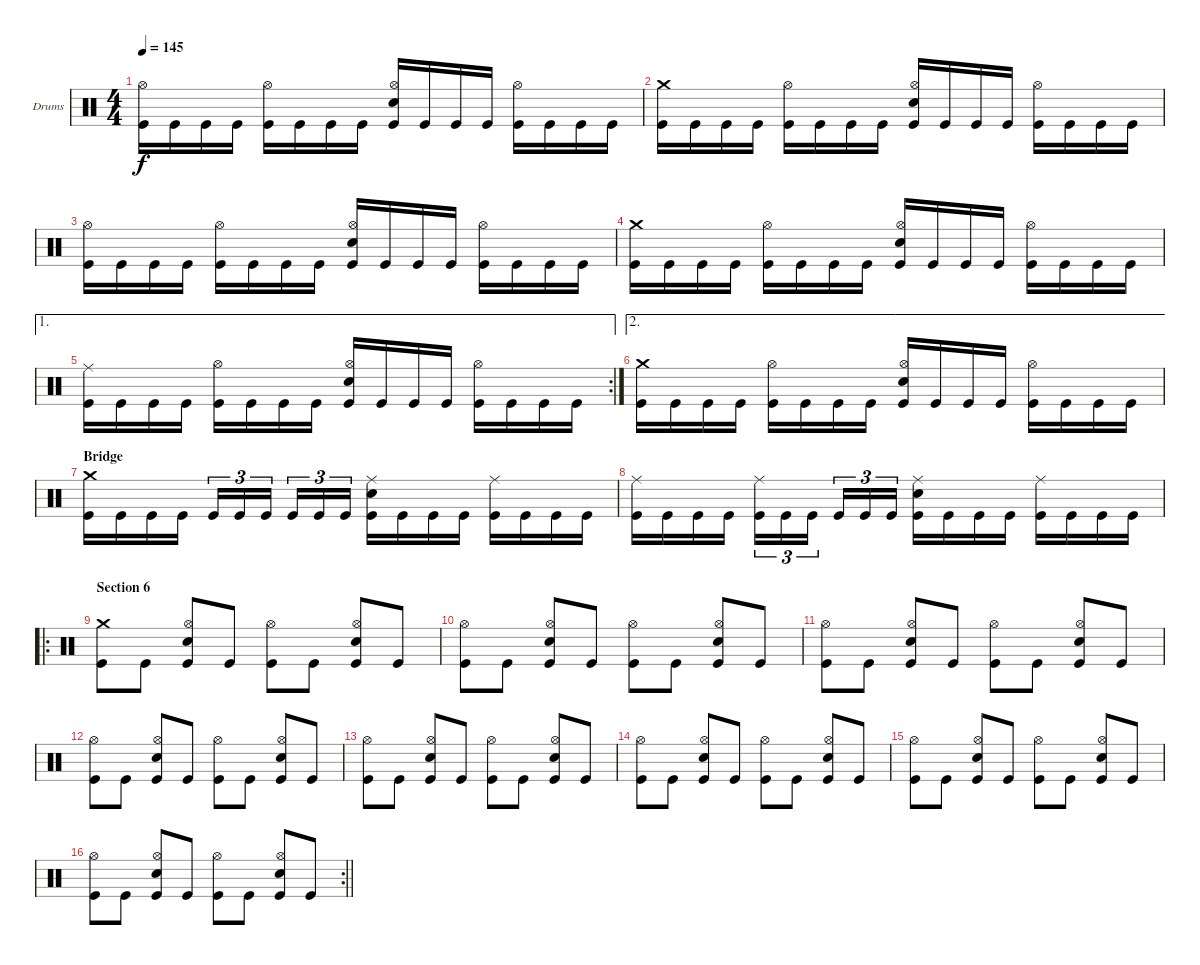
\defaultSystemsLayout 4
\bracketExtendMode groupsimilarinstruments
\firstSystemTrackNameOrientation horizontal
\otherSystemsTrackNameOrientation horizontal
\track ("Drums" "Drums") {instrument percussion}
\staff {score}
\articulation defaults
\ts (4 4)
\tempo 145
\clef neutral
\ks c
("Kick (hit)" "Hi-Hat (open)").16{dy f} "Kick (hit)".16 "Kick (hit)".16 "Kick (hit)".16 ("Kick (hit)" "Hi-Hat (open)").16 "Kick (hit)".16 "Kick (hit)".16 "Kick (hit)".16 ("Snare (hit) 2" "Hi-Hat (open)" "Kick (hit)").16 "Kick (hit)".16 "Kick (hit)".16 "Kick (hit)".16 ("Kick (hit)" "Hi-Hat (open)").16 "Kick (hit)".16 "Kick (hit)".16 "Kick (hit)".16 |
("Kick (hit)" "Crash medium (hit)").16 "Kick (hit)".16 "Kick (hit)".16 "Kick (hit)".16 ("Kick (hit)" "Hi-Hat (open)").16 "Kick (hit)".16 "Kick (hit)".16 "Kick (hit)".16 ("Snare (hit) 2" "Hi-Hat (open)" "Kick (hit)").16 "Kick (hit)".16 "Kick (hit)".16 "Kick (hit)".16 ("Kick (hit)" "Hi-Hat (open)").16 "Kick (hit)".16 "Kick (hit)".16 "Kick (hit)".16 |
("Kick (hit)" "Hi-Hat (open)").16 "Kick (hit)".16 "Kick (hit)".16 "Kick (hit)".16 ("Kick (hit)" "Hi-Hat (open)").16 "Kick (hit)".16 "Kick (hit)".16 "Kick (hit)".16 ("Snare (hit) 2" "Hi-Hat (open)" "Kick (hit)").16 "Kick (hit)".16 "Kick (hit)".16 "Kick (hit)".16 ("Kick (hit)" "Hi-Hat (open)").16 "Kick (hit)".16 "Kick (hit)".16 "Kick (hit)".16 |
("Kick (hit)" "Crash medium (hit)").16 "Kick (hit)".16 "Kick (hit)".16 "Kick (hit)".16 ("Kick (hit)" "Hi-Hat (open)").16 "Kick (hit)".16 "Kick (hit)".16 "Kick (hit)".16 ("Snare (hit) 2" "Hi-Hat (open)" "Kick (hit)").16 "Kick (hit)".16 "Kick (hit)".16 "Kick (hit)".16 ("Kick (hit)" "Hi-Hat (open)").16 "Kick (hit)".16 "Kick (hit)".16 "Kick (hit)".16 |
\ae 1
\rc 2
("Kick (hit)" "Ride (middle)").16 "Kick (hit)".16 "Kick (hit)".16 "Kick (hit)".16 ("Kick (hit)" "Hi-Hat (open)").16 "Kick (hit)".16 "Kick (hit)".16 "Kick (hit)".16 ("Snare (hit) 2" "Hi-Hat (open)" "Kick (hit)").16 "Kick (hit)".16 "Kick (hit)".16 "Kick (hit)".16 ("Kick (hit)" "Hi-Hat (open)").16 "Kick (hit)".16 "Kick (hit)".16 "Kick (hit)".16 |
\ae 2
("Kick (hit)" "Crash medium (hit)").16 "Kick (hit)".16 "Kick (hit)".16 "Kick (hit)".16 ("Kick (hit)" "Hi-Hat (open)").16 "Kick (hit)".16 "Kick (hit)".16 "Kick (hit)".16 ("Snare (hit) 2" "Hi-Hat (open)" "Kick (hit)").16 "Kick (hit)".16 "Kick (hit)".16 "Kick (hit)".16 ("Kick (hit)" "Hi-Hat (open)").16 "Kick (hit)".16 "Kick (hit)".16 "Kick (hit)".16 |
\section ("" "Bridge")
("Kick (hit)" "Crash medium (hit)").16 "Kick (hit)".16 "Kick (hit)".16 "Kick (hit)".16 "Kick (hit)".16{tu (3 2)} "Kick (hit)".16{tu (3 2)} "Kick (hit)".16{tu (3 2)} "Kick (hit)".16{tu (3 2)} "Kick (hit)".16{tu (3 2)} "Kick (hit)".16{tu (3 2)} ("Snare (hit) 2" "Ride (middle)" "Kick (hit)").16 "Kick (hit)".16 "Kick (hit)".16 "Kick (hit)".16 ("Kick (hit)" "Ride (middle)").16 "Kick (hit)".16 "Kick (hit)".16 "Kick (hit)".16 |
("Kick (hit)" "Ride (middle)").16 "Kick (hit)".16 "Kick (hit)".16 "Kick (hit)".16 ("Kick (hit)" "Ride (middle)").16{tu (3 2)} "Kick (hit)".16{tu (3 2)} "Kick (hit)".16{tu (3 2)} "Kick (hit)".16{tu (3 2)} "Kick (hit)".16{tu (3 2)} "Kick (hit)".16{tu (3 2)} ("Snare (hit) 2" "Ride (middle)" "Kick (hit)").16 "Kick (hit)".16 "Kick (hit)".16 "Kick (hit)".16 ("Kick (hit)" "Ride (middle)").16 "Kick (hit)".16 "Kick (hit)".16 "Kick (hit)".16 |
\ro
\section ("" "Section 6")
("Kick (hit)" "Crash medium (hit)").8 "Kick (hit)".8 ("Snare (hit) 2" "Hi-Hat (open)" "Kick (hit)").8 "Kick (hit)".8 ("Kick (hit)" "Hi-Hat (open)").8 "Kick (hit)".8 ("Snare (hit) 2" "Hi-Hat (open)" "Kick (hit)").8 "Kick (hit)".8 |
("Kick (hit)" "Hi-Hat (open)").8 "Kick (hit)".8 ("Snare (hit) 2" "Hi-Hat (open)" "Kick (hit)").8 "Kick (hit)".8 ("Kick (hit)" "Hi-Hat (open)").8 "Kick (hit)".8 ("Snare (hit) 2" "Hi-Hat (open)" "Kick (hit)").8 "Kick (hit)".8 |
("Kick (hit)" "Hi-Hat (open)").8 "Kick (hit)".8 ("Snare (hit) 2" "Hi-Hat (open)" "Kick (hit)").8 "Kick (hit)".8 ("Kick (hit)" "Hi-Hat (open)").8 "Kick (hit)".8 ("Snare (hit) 2" "Hi-Hat (open)" "Kick (hit)").8 "Kick (hit)".8 |
("Kick (hit)" "Hi-Hat (open)").8 "Kick (hit)".8 ("Snare (hit) 2" "Hi-Hat (open)" "Kick (hit)").8 "Kick (hit)".8 ("Kick (hit)" "Hi-Hat (open)").8 "Kick (hit)".8 ("Snare (hit) 2" "Hi-Hat (open)" "Kick (hit)").8 "Kick (hit)".8 |
("Kick (hit)" "Hi-Hat (open)").8 "Kick (hit)".8 ("Snare (hit) 2" "Hi-Hat (open)" "Kick (hit)").8 "Kick (hit)".8 ("Kick (hit)" "Hi-Hat (open)").8 "Kick (hit)".8 ("Snare (hit) 2" "Hi-Hat (open)" "Kick (hit)").8 "Kick (hit)".8 |
("Kick (hit)" "Hi-Hat (open)").8 "Kick (hit)".8 ("Snare (hit) 2" "Hi-Hat (open)" "Kick (hit)").8 "Kick (hit)".8 ("Kick (hit)" "Hi-Hat (open)").8 "Kick (hit)".8 ("Snare (hit) 2" "Hi-Hat (open)" "Kick (hit)").8 "Kick (hit)".8 |
("Kick (hit)" "Hi-Hat (open)").8 "Kick (hit)".8 ("Snare (hit) 2" "Hi-Hat (open)" "Kick (hit)").8 "Kick (hit)".8 ("Kick (hit)" "Hi-Hat (open)").8 "Kick (hit)".8 ("Snare (hit) 2" "Hi-Hat (open)" "Kick (hit)").8 "Kick (hit)".8 |
\rc 2
\barLineRight lightlight
("Kick (hit)" "Hi-Hat (open)").8 "Kick (hit)".8 ("Snare (hit) 2" "Hi-Hat (open)" "Kick (hit)").8 "Kick (hit)".8 ("Kick (hit)" "Hi-Hat (open)").8 "Kick (hit)".8 ("Snare (hit) 2" "Hi-Hat (open)" "Kick (hit)").8 "Kick (hit)".8
